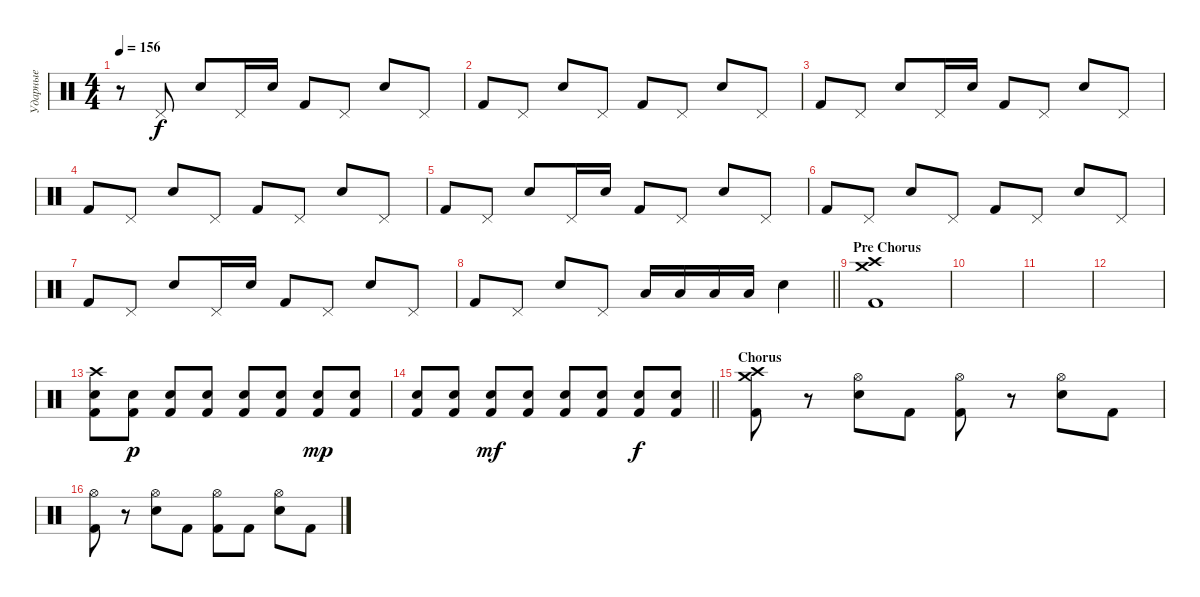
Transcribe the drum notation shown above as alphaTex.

\track ("Ударные" "Ударные") {instrument percussion}
\staff {score}
\articulation defaults
\ts (4 4)
\tempo 156
\clef neutral
\ks c
r.8{dy f} "Pedal Hi-Hat (hit)".8 "Electric Snare (hit)".8 "Pedal Hi-Hat (hit)".16 "Electric Snare (hit)".16 "Kick (hit) 2".8 "Pedal Hi-Hat (hit)".8 "Electric Snare (hit)".8 "Pedal Hi-Hat (hit)".8 |
"Kick (hit) 2".8 "Pedal Hi-Hat (hit)".8 "Electric Snare (hit)".8 "Pedal Hi-Hat (hit)".8 "Kick (hit) 2".8 "Pedal Hi-Hat (hit)".8 "Electric Snare (hit)".8 "Pedal Hi-Hat (hit)".8 |
"Kick (hit) 2".8 "Pedal Hi-Hat (hit)".8 "Electric Snare (hit)".8 "Pedal Hi-Hat (hit)".16 "Electric Snare (hit)".16 "Kick (hit) 2".8 "Pedal Hi-Hat (hit)".8 "Electric Snare (hit)".8 "Pedal Hi-Hat (hit)".8 |
"Kick (hit) 2".8 "Pedal Hi-Hat (hit)".8 "Electric Snare (hit)".8 "Pedal Hi-Hat (hit)".8 "Kick (hit) 2".8 "Pedal Hi-Hat (hit)".8 "Electric Snare (hit)".8 "Pedal Hi-Hat (hit)".8 |
"Kick (hit) 2".8 "Pedal Hi-Hat (hit)".8 "Electric Snare (hit)".8 "Pedal Hi-Hat (hit)".16 "Electric Snare (hit)".16 "Kick (hit) 2".8 "Pedal Hi-Hat (hit)".8 "Electric Snare (hit)".8 "Pedal Hi-Hat (hit)".8 |
"Kick (hit) 2".8 "Pedal Hi-Hat (hit)".8 "Electric Snare (hit)".8 "Pedal Hi-Hat (hit)".8 "Kick (hit) 2".8 "Pedal Hi-Hat (hit)".8 "Electric Snare (hit)".8 "Pedal Hi-Hat (hit)".8 |
"Kick (hit) 2".8 "Pedal Hi-Hat (hit)".8 "Electric Snare (hit)".8 "Pedal Hi-Hat (hit)".16 "Electric Snare (hit)".16 "Kick (hit) 2".8 "Pedal Hi-Hat (hit)".8 "Electric Snare (hit)".8 "Pedal Hi-Hat (hit)".8 |
\barLineRight lightlight "Kick (hit) 2".8 "Pedal Hi-Hat (hit)".8 "Electric Snare (hit)".8 "Pedal Hi-Hat (hit)".8 "Low Tom (hit)".16 "Low Tom (hit)".16 "Low Tom (hit)".16 "Low Tom (hit)".16 "Electric Snare (hit)".4
|
\section ("" "Pre Chorus")
("Crash high (hit)" "Crash medium (hit)" "Kick (hit) 2").1 |
|
|
|
("Crash high (hit)" "Electric Snare (hit)" "Kick (hit) 2").8 ("Electric Snare (hit)" "Kick (hit) 2").8{dy p} ("Electric Snare (hit)" "Kick (hit) 2").8 ("Electric Snare (hit)" "Kick (hit) 2").8 ("Electric Snare (hit)" "Kick (hit) 2").8 ("Electric Snare (hit)" "Kick (hit) 2").8 ("Electric Snare (hit)" "Kick (hit) 2").8{dy mp} ("Electric Snare (hit)" "Kick (hit) 2").8 |
\barLineRight lightlight
("Electric Snare (hit)" "Kick (hit) 2").8 ("Electric Snare (hit)" "Kick (hit) 2").8 ("Electric Snare (hit)" "Kick (hit) 2").8{dy mf} ("Electric Snare (hit)" "Kick (hit) 2").8 ("Electric Snare (hit)" "Kick (hit) 2").8 ("Electric Snare (hit)" "Kick (hit) 2").8 ("Electric Snare (hit)" "Kick (hit) 2").8{dy f} ("Electric Snare (hit)" "Kick (hit) 2").8 |
\section ("" "Chorus")
("Crash medium (hit)" "Crash high (hit)" "Kick (hit) 2").8 r.8 ("Hi-Hat (open)" "Electric Snare (hit)").8 "Kick (hit) 2".8 ("Hi-Hat (open)" "Kick (hit) 2").8 r.8 ("Hi-Hat (open)" "Electric Snare (hit)").8 "Kick (hit) 2".8 |
("Hi-Hat (open)" "Kick (hit) 2").8 r.8 ("Hi-Hat (open)" "Electric Snare (hit)").8 "Kick (hit) 2".8 ("Hi-Hat (open)" "Kick (hit) 2").8 "Kick (hit) 2".8 ("Hi-Hat (open)" "Electric Snare (hit)").8 "Kick (hit) 2".8
